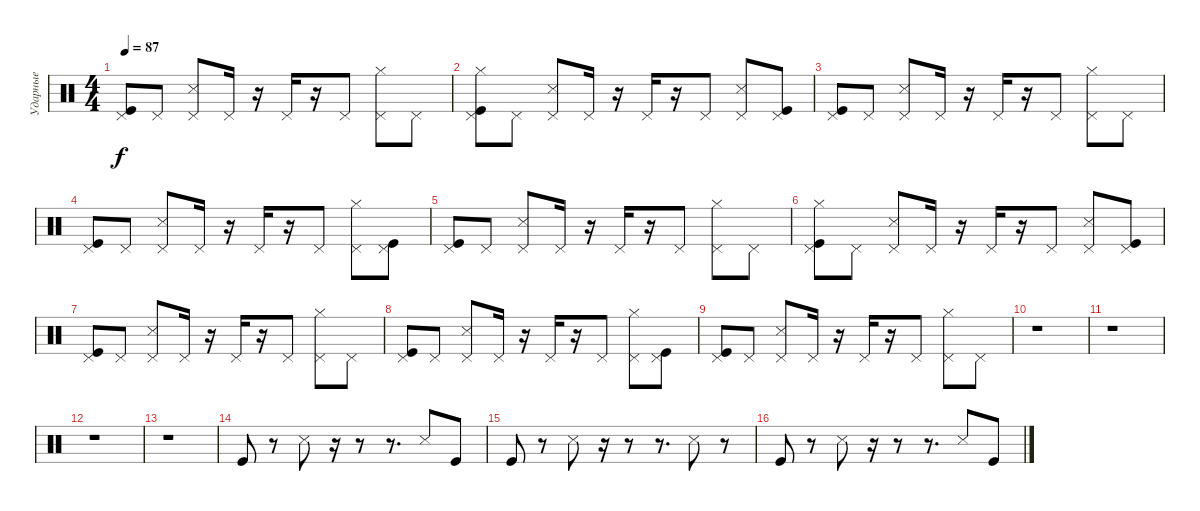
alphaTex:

\track ("Ударные" "Ударные") {instrument percussion}
\staff {score}
\articulation defaults
\ts (4 4)
\tempo 87
\clef neutral
\ks c
("Kick (hit)" "Pedal Hi-Hat (hit)").8{dy f} "Pedal Hi-Hat (hit)".8 ("Snare (side stick) 3" "Pedal Hi-Hat (hit)").8 "Pedal Hi-Hat (hit)".16 r.16 "Pedal Hi-Hat (hit)".16 r.16 "Pedal Hi-Hat (hit)".8 ("Pedal Hi-Hat (hit)" "Hi-Hat (closed)").8 "Pedal Hi-Hat (hit)".8 |
("Hi-Hat (closed)" "Kick (hit)" "Pedal Hi-Hat (hit)").8 "Pedal Hi-Hat (hit)".8 ("Snare (side stick) 3" "Pedal Hi-Hat (hit)").8 "Pedal Hi-Hat (hit)".16 r.16 "Pedal Hi-Hat (hit)".16 r.16 "Pedal Hi-Hat (hit)".8 ("Snare (side stick) 3" "Pedal Hi-Hat (hit)").8 ("Kick (hit)" "Pedal Hi-Hat (hit)").8 |
("Kick (hit)" "Pedal Hi-Hat (hit)").8 "Pedal Hi-Hat (hit)".8 ("Snare (side stick) 3" "Pedal Hi-Hat (hit)").8 "Pedal Hi-Hat (hit)".16 r.16 "Pedal Hi-Hat (hit)".16 r.16 "Pedal Hi-Hat (hit)".8 ("Pedal Hi-Hat (hit)" "Hi-Hat (closed)").8 "Pedal Hi-Hat (hit)".8 |
("Kick (hit)" "Pedal Hi-Hat (hit)").8 "Pedal Hi-Hat (hit)".8 ("Snare (side stick) 3" "Pedal Hi-Hat (hit)").8 "Pedal Hi-Hat (hit)".16 r.16 "Pedal Hi-Hat (hit)".16 r.16 "Pedal Hi-Hat (hit)".8 ("Pedal Hi-Hat (hit)" "Hi-Hat (closed)").8 ("Pedal Hi-Hat (hit)" "Kick (hit)").8 |
("Kick (hit)" "Pedal Hi-Hat (hit)").8 "Pedal Hi-Hat (hit)".8 ("Snare (side stick) 3" "Pedal Hi-Hat (hit)").8 "Pedal Hi-Hat (hit)".16 r.16 "Pedal Hi-Hat (hit)".16 r.16 "Pedal Hi-Hat (hit)".8 ("Pedal Hi-Hat (hit)" "Hi-Hat (closed)").8 "Pedal Hi-Hat (hit)".8 |
("Hi-Hat (closed)" "Kick (hit)" "Pedal Hi-Hat (hit)").8 "Pedal Hi-Hat (hit)".8 ("Snare (side stick) 3" "Pedal Hi-Hat (hit)").8 "Pedal Hi-Hat (hit)".16 r.16 "Pedal Hi-Hat (hit)".16 r.16 "Pedal Hi-Hat (hit)".8 ("Snare (side stick) 3" "Pedal Hi-Hat (hit)").8 ("Kick (hit)" "Pedal Hi-Hat (hit)").8 |
("Kick (hit)" "Pedal Hi-Hat (hit)").8 "Pedal Hi-Hat (hit)".8 ("Snare (side stick) 3" "Pedal Hi-Hat (hit)").8 "Pedal Hi-Hat (hit)".16 r.16 "Pedal Hi-Hat (hit)".16 r.16 "Pedal Hi-Hat (hit)".8 ("Pedal Hi-Hat (hit)" "Hi-Hat (closed)").8 "Pedal Hi-Hat (hit)".8 |
("Kick (hit)" "Pedal Hi-Hat (hit)").8 "Pedal Hi-Hat (hit)".8 ("Snare (side stick) 3" "Pedal Hi-Hat (hit)").8 "Pedal Hi-Hat (hit)".16 r.16 "Pedal Hi-Hat (hit)".16 r.16 "Pedal Hi-Hat (hit)".8 ("Pedal Hi-Hat (hit)" "Hi-Hat (closed)").8 ("Pedal Hi-Hat (hit)" "Kick (hit)").8 |
("Kick (hit)" "Pedal Hi-Hat (hit)").8 "Pedal Hi-Hat (hit)".8 ("Snare (side stick) 3" "Pedal Hi-Hat (hit)").8 "Pedal Hi-Hat (hit)".16 r.16 "Pedal Hi-Hat (hit)".16 r.16 "Pedal Hi-Hat (hit)".8 ("Pedal Hi-Hat (hit)" "Hi-Hat (closed)").8 "Pedal Hi-Hat (hit)".8 |
r.1 |
r.1 |
r.1 |
r.1 |
"Kick (hit)".8 r.8 "Snare (side stick) 3".8 r.16 r.8 r.8{d} "Snare (side stick) 3".8 "Kick (hit)".8 |
"Kick (hit)".8 r.8 "Snare (side stick) 3".8 r.16 r.8 r.8{d} "Snare (side stick) 3".8 r.8 |
"Kick (hit)".8 r.8 "Snare (side stick) 3".8 r.16 r.8 r.8{d} "Snare (side stick) 3".8 "Kick (hit)".8
